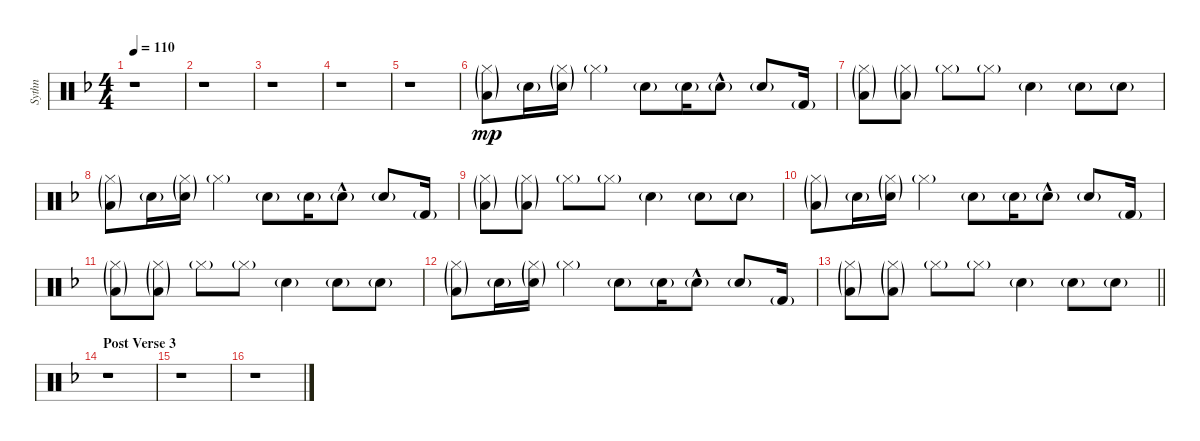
\track ("Sythn" "Sythn") {instrument percussion}
\staff {score}
\articulation defaults
\ts (4 4)
\tempo 110
\clef neutral
\ks f
r.1{dy mp} |
r.1 |
r.1 |
r.1 |
r.1 |
("Hi-Hat (closed)"{g} "Low Floor Tom (hit)"{g}).8{volume 4} "Snare (hit) 2"{g}.16 ("Hi-Hat (closed)"{g} "Snare (hit) 2"{g}).16 "Hi-Hat (closed)"{g}.4 "Snare (hit) 2"{g}.8 "Snare (hit) 2"{g}.16 "Snare (hit) 2"{g hac}.8 "Snare (hit) 2"{g}.8 "Kick (hit) 2"{g}.16 |
("Hi-Hat (closed)"{g} "Low Floor Tom (hit)"{g}).8 ("Hi-Hat (closed)"{g} "Low Floor Tom (hit)"{g}).8 "Hi-Hat (closed)"{g}.8 "Hi-Hat (closed)"{g}.8 "Snare (hit) 2"{g}.4 "Snare (hit) 2"{g}.8 "Snare (hit) 2"{g}.8 |
("Hi-Hat (closed)"{g} "Low Floor Tom (hit)"{g}).8 "Snare (hit) 2"{g}.16 ("Hi-Hat (closed)"{g} "Snare (hit) 2"{g}).16 "Hi-Hat (closed)"{g}.4 "Snare (hit) 2"{g}.8 "Snare (hit) 2"{g}.16 "Snare (hit) 2"{g hac}.8 "Snare (hit) 2"{g}.8 "Kick (hit) 2"{g}.16 |
("Hi-Hat (closed)"{g} "Low Floor Tom (hit)"{g}).8 ("Hi-Hat (closed)"{g} "Low Floor Tom (hit)"{g}).8 "Hi-Hat (closed)"{g}.8 "Hi-Hat (closed)"{g}.8 "Snare (hit) 2"{g}.4 "Snare (hit) 2"{g}.8 "Snare (hit) 2"{g}.8 |
("Hi-Hat (closed)"{g} "Low Floor Tom (hit)"{g}).8 "Snare (hit) 2"{g}.16 ("Hi-Hat (closed)"{g} "Snare (hit) 2"{g}).16 "Hi-Hat (closed)"{g}.4 "Snare (hit) 2"{g}.8 "Snare (hit) 2"{g}.16 "Snare (hit) 2"{g hac}.8 "Snare (hit) 2"{g}.8 "Kick (hit) 2"{g}.16 |
("Hi-Hat (closed)"{g} "Low Floor Tom (hit)"{g}).8 ("Hi-Hat (closed)"{g} "Low Floor Tom (hit)"{g}).8 "Hi-Hat (closed)"{g}.8 "Hi-Hat (closed)"{g}.8 "Snare (hit) 2"{g}.4 "Snare (hit) 2"{g}.8 "Snare (hit) 2"{g}.8 |
("Hi-Hat (closed)"{g} "Low Floor Tom (hit)"{g}).8 "Snare (hit) 2"{g}.16 ("Hi-Hat (closed)"{g} "Snare (hit) 2"{g}).16 "Hi-Hat (closed)"{g}.4 "Snare (hit) 2"{g}.8 "Snare (hit) 2"{g}.16 "Snare (hit) 2"{g hac}.8 "Snare (hit) 2"{g}.8 "Kick (hit) 2"{g}.16 |
\barLineRight lightlight
("Hi-Hat (closed)"{g} "Low Floor Tom (hit)"{g}).8 ("Hi-Hat (closed)"{g} "Low Floor Tom (hit)"{g}).8 "Hi-Hat (closed)"{g}.8 "Hi-Hat (closed)"{g}.8 "Snare (hit) 2"{g}.4 "Snare (hit) 2"{g}.8 "Snare (hit) 2"{g}.8 |
\section ("" "Post Verse 3")
r.1 |
r.1 |
r.1
